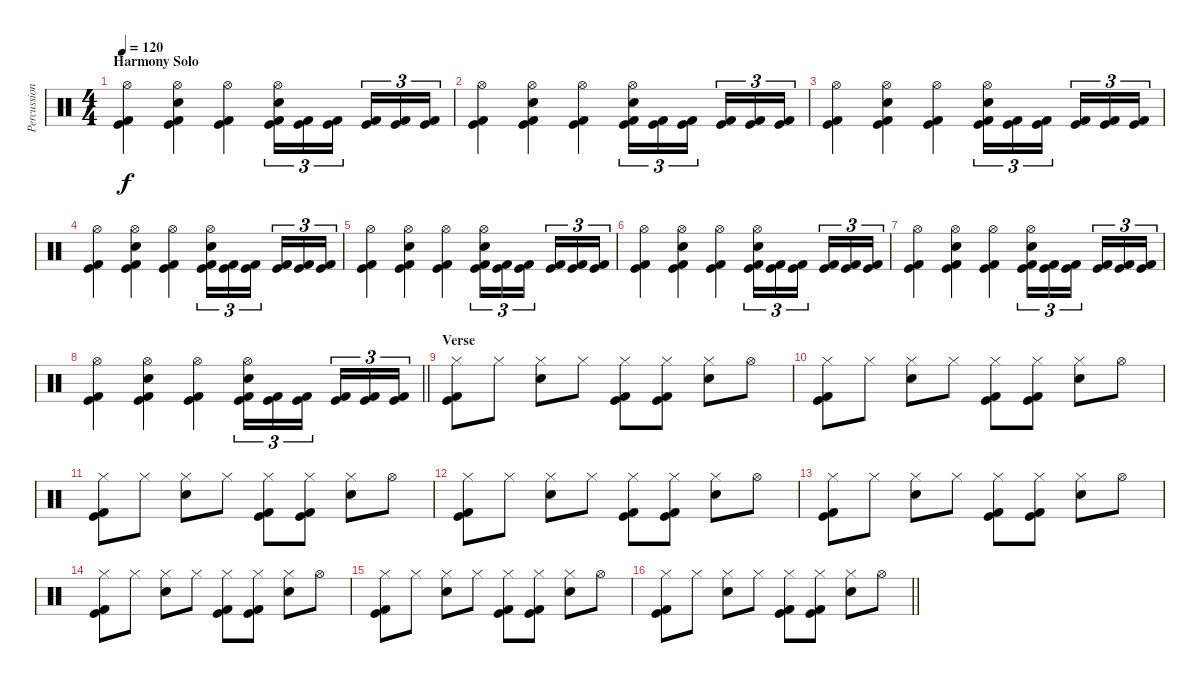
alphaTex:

\track ("Percussion" "Percussion") {instrument percussion}
\staff {score}
\articulation defaults
\ts (4 4)
\section ("" "Harmony Solo")
\tempo 120
\clef neutral
\ks c
("Hi-Hat (open)" "Kick (hit) 2" "Kick (hit)").4{dy f} ("Hi-Hat (open)" "Electric Snare (hit)" "Kick (hit) 2" "Kick (hit)").4 ("Hi-Hat (open)" "Kick (hit) 2" "Kick (hit)").4 ("Hi-Hat (open)" "Electric Snare (hit)" "Kick (hit) 2" "Kick (hit)").16{tu (3 2)} ("Kick (hit) 2" "Kick (hit)").16{tu (3 2)} ("Kick (hit) 2" "Kick (hit)").16{tu (3 2) beam splitsecondary} ("Kick (hit) 2" "Kick (hit)").16{tu (3 2)} ("Kick (hit) 2" "Kick (hit)").16{tu (3 2)} ("Kick (hit) 2" "Kick (hit)").16{tu (3 2)} |
("Hi-Hat (open)" "Kick (hit) 2" "Kick (hit)").4 ("Hi-Hat (open)" "Electric Snare (hit)" "Kick (hit) 2" "Kick (hit)").4 ("Hi-Hat (open)" "Kick (hit) 2" "Kick (hit)").4 ("Hi-Hat (open)" "Electric Snare (hit)" "Kick (hit) 2" "Kick (hit)").16{tu (3 2)} ("Kick (hit) 2" "Kick (hit)").16{tu (3 2)} ("Kick (hit) 2" "Kick (hit)").16{tu (3 2) beam splitsecondary} ("Kick (hit) 2" "Kick (hit)").16{tu (3 2)} ("Kick (hit) 2" "Kick (hit)").16{tu (3 2)} ("Kick (hit) 2" "Kick (hit)").16{tu (3 2)} |
("Hi-Hat (open)" "Kick (hit) 2" "Kick (hit)").4 ("Hi-Hat (open)" "Electric Snare (hit)" "Kick (hit) 2" "Kick (hit)").4 ("Hi-Hat (open)" "Kick (hit) 2" "Kick (hit)").4 ("Hi-Hat (open)" "Electric Snare (hit)" "Kick (hit) 2" "Kick (hit)").16{tu (3 2)} ("Kick (hit) 2" "Kick (hit)").16{tu (3 2)} ("Kick (hit) 2" "Kick (hit)").16{tu (3 2) beam splitsecondary} ("Kick (hit) 2" "Kick (hit)").16{tu (3 2)} ("Kick (hit) 2" "Kick (hit)").16{tu (3 2)} ("Kick (hit) 2" "Kick (hit)").16{tu (3 2)} |
("Hi-Hat (open)" "Kick (hit) 2" "Kick (hit)").4 ("Hi-Hat (open)" "Electric Snare (hit)" "Kick (hit) 2" "Kick (hit)").4 ("Hi-Hat (open)" "Kick (hit) 2" "Kick (hit)").4 ("Hi-Hat (open)" "Electric Snare (hit)" "Kick (hit) 2" "Kick (hit)").16{tu (3 2)} ("Kick (hit) 2" "Kick (hit)").16{tu (3 2)} ("Kick (hit) 2" "Kick (hit)").16{tu (3 2) beam splitsecondary} ("Kick (hit) 2" "Kick (hit)").16{tu (3 2)} ("Kick (hit) 2" "Kick (hit)").16{tu (3 2)} ("Kick (hit) 2" "Kick (hit)").16{tu (3 2)} |
("Hi-Hat (open)" "Kick (hit) 2" "Kick (hit)").4 ("Hi-Hat (open)" "Electric Snare (hit)" "Kick (hit) 2" "Kick (hit)").4 ("Hi-Hat (open)" "Kick (hit) 2" "Kick (hit)").4 ("Hi-Hat (open)" "Electric Snare (hit)" "Kick (hit) 2" "Kick (hit)").16{tu (3 2)} ("Kick (hit) 2" "Kick (hit)").16{tu (3 2)} ("Kick (hit) 2" "Kick (hit)").16{tu (3 2) beam splitsecondary} ("Kick (hit) 2" "Kick (hit)").16{tu (3 2)} ("Kick (hit) 2" "Kick (hit)").16{tu (3 2)} ("Kick (hit) 2" "Kick (hit)").16{tu (3 2)} |
("Hi-Hat (open)" "Kick (hit) 2" "Kick (hit)").4 ("Hi-Hat (open)" "Electric Snare (hit)" "Kick (hit) 2" "Kick (hit)").4 ("Hi-Hat (open)" "Kick (hit) 2" "Kick (hit)").4 ("Hi-Hat (open)" "Electric Snare (hit)" "Kick (hit) 2" "Kick (hit)").16{tu (3 2)} ("Kick (hit) 2" "Kick (hit)").16{tu (3 2)} ("Kick (hit) 2" "Kick (hit)").16{tu (3 2) beam splitsecondary} ("Kick (hit) 2" "Kick (hit)").16{tu (3 2)} ("Kick (hit) 2" "Kick (hit)").16{tu (3 2)} ("Kick (hit) 2" "Kick (hit)").16{tu (3 2)} |
("Hi-Hat (open)" "Kick (hit) 2" "Kick (hit)").4 ("Hi-Hat (open)" "Electric Snare (hit)" "Kick (hit) 2" "Kick (hit)").4 ("Hi-Hat (open)" "Kick (hit) 2" "Kick (hit)").4 ("Hi-Hat (open)" "Electric Snare (hit)" "Kick (hit) 2" "Kick (hit)").16{tu (3 2)} ("Kick (hit) 2" "Kick (hit)").16{tu (3 2)} ("Kick (hit) 2" "Kick (hit)").16{tu (3 2) beam splitsecondary} ("Kick (hit) 2" "Kick (hit)").16{tu (3 2)} ("Kick (hit) 2" "Kick (hit)").16{tu (3 2)} ("Kick (hit) 2" "Kick (hit)").16{tu (3 2)} |
\barLineRight lightlight
("Hi-Hat (open)" "Kick (hit) 2" "Kick (hit)").4 ("Hi-Hat (open)" "Electric Snare (hit)" "Kick (hit) 2" "Kick (hit)").4 ("Hi-Hat (open)" "Kick (hit) 2" "Kick (hit)").4 ("Hi-Hat (open)" "Electric Snare (hit)" "Kick (hit) 2" "Kick (hit)").16{tu (3 2)} ("Kick (hit) 2" "Kick (hit)").16{tu (3 2)} ("Kick (hit) 2" "Kick (hit)").16{tu (3 2) beam splitsecondary} ("Kick (hit) 2" "Kick (hit)").16{tu (3 2)} ("Kick (hit) 2" "Kick (hit)").16{tu (3 2)} ("Kick (hit) 2" "Kick (hit)").16{tu (3 2)} |
\section ("" "Verse")
("Hi-Hat (closed)" "Kick (hit) 2" "Kick (hit)").8 "Hi-Hat (closed)".8 ("Hi-Hat (closed)" "Electric Snare (hit)").8 "Hi-Hat (closed)".8 ("Hi-Hat (closed)" "Kick (hit) 2" "Kick (hit)").8 ("Hi-Hat (closed)" "Kick (hit) 2" "Kick (hit)").8 ("Hi-Hat (closed)" "Electric Snare (hit)").8 "Hi-Hat (open)".8 |
("Hi-Hat (closed)" "Kick (hit) 2" "Kick (hit)").8 "Hi-Hat (closed)".8 ("Hi-Hat (closed)" "Electric Snare (hit)").8 "Hi-Hat (closed)".8 ("Hi-Hat (closed)" "Kick (hit) 2" "Kick (hit)").8 ("Hi-Hat (closed)" "Kick (hit) 2" "Kick (hit)").8 ("Hi-Hat (closed)" "Electric Snare (hit)").8 "Hi-Hat (open)".8 |
("Hi-Hat (closed)" "Kick (hit) 2" "Kick (hit)").8 "Hi-Hat (closed)".8 ("Hi-Hat (closed)" "Electric Snare (hit)").8 "Hi-Hat (closed)".8 ("Hi-Hat (closed)" "Kick (hit) 2" "Kick (hit)").8 ("Hi-Hat (closed)" "Kick (hit) 2" "Kick (hit)").8 ("Hi-Hat (closed)" "Electric Snare (hit)").8 "Hi-Hat (open)".8 |
("Hi-Hat (closed)" "Kick (hit) 2" "Kick (hit)").8 "Hi-Hat (closed)".8 ("Hi-Hat (closed)" "Electric Snare (hit)").8 "Hi-Hat (closed)".8 ("Hi-Hat (closed)" "Kick (hit) 2" "Kick (hit)").8 ("Hi-Hat (closed)" "Kick (hit) 2" "Kick (hit)").8 ("Hi-Hat (closed)" "Electric Snare (hit)").8 "Hi-Hat (open)".8 |
("Hi-Hat (closed)" "Kick (hit) 2" "Kick (hit)").8 "Hi-Hat (closed)".8 ("Hi-Hat (closed)" "Electric Snare (hit)").8 "Hi-Hat (closed)".8 ("Hi-Hat (closed)" "Kick (hit) 2" "Kick (hit)").8 ("Hi-Hat (closed)" "Kick (hit) 2" "Kick (hit)").8 ("Hi-Hat (closed)" "Electric Snare (hit)").8 "Hi-Hat (open)".8 |
("Hi-Hat (closed)" "Kick (hit) 2" "Kick (hit)").8 "Hi-Hat (closed)".8 ("Hi-Hat (closed)" "Electric Snare (hit)").8 "Hi-Hat (closed)".8 ("Hi-Hat (closed)" "Kick (hit) 2" "Kick (hit)").8 ("Hi-Hat (closed)" "Kick (hit) 2" "Kick (hit)").8 ("Hi-Hat (closed)" "Electric Snare (hit)").8 "Hi-Hat (open)".8 |
("Hi-Hat (closed)" "Kick (hit) 2" "Kick (hit)").8 "Hi-Hat (closed)".8 ("Hi-Hat (closed)" "Electric Snare (hit)").8 "Hi-Hat (closed)".8 ("Hi-Hat (closed)" "Kick (hit) 2" "Kick (hit)").8 ("Hi-Hat (closed)" "Kick (hit) 2" "Kick (hit)").8 ("Hi-Hat (closed)" "Electric Snare (hit)").8 "Hi-Hat (open)".8 |
\barLineRight lightlight
("Hi-Hat (closed)" "Kick (hit) 2" "Kick (hit)").8 "Hi-Hat (closed)".8 ("Hi-Hat (closed)" "Electric Snare (hit)").8 "Hi-Hat (closed)".8 ("Hi-Hat (closed)" "Kick (hit) 2" "Kick (hit)").8 ("Hi-Hat (closed)" "Kick (hit) 2" "Kick (hit)").8 ("Hi-Hat (closed)" "Electric Snare (hit)").8 "Hi-Hat (open)".8
